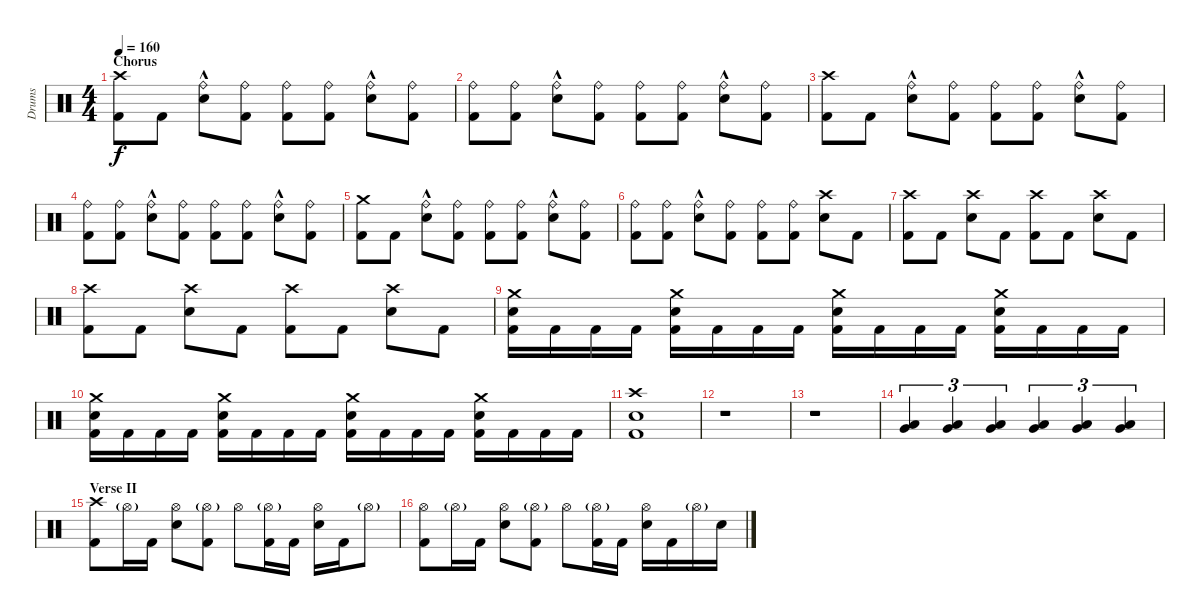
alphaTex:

\track ("Drums" "Drums") {instrument percussion}
\staff {score}
\articulation defaults
\ts (4 4)
\section ("" "Chorus")
\tempo 160
\clef neutral
\ks c
("Crash high (hit)" "Kick (hit) 2").8{dy f} "Kick (hit) 2".8 ("Ride (bell)"{hac} "Snare (hit) 2").8 ("Ride (bell)" "Kick (hit) 2").8 ("Ride (bell)" "Kick (hit) 2").8 ("Ride (bell)" "Kick (hit) 2").8 ("Ride (bell)"{hac} "Snare (hit) 2").8 ("Ride (bell)" "Kick (hit) 2").8 |
("Ride (bell)" "Kick (hit) 2").8 ("Ride (bell)" "Kick (hit) 2").8 ("Ride (bell)"{hac} "Snare (hit) 2").8 ("Ride (bell)" "Kick (hit) 2").8 ("Ride (bell)" "Kick (hit) 2").8 ("Ride (bell)" "Kick (hit) 2").8 ("Ride (bell)"{hac} "Snare (hit) 2").8 ("Ride (bell)" "Kick (hit) 2").8 |
("Crash high (hit)" "Kick (hit) 2").8 "Kick (hit) 2".8 ("Ride (bell)"{hac} "Snare (hit) 2").8 ("Ride (bell)" "Kick (hit) 2").8 ("Ride (bell)" "Kick (hit) 2").8 ("Ride (bell)" "Kick (hit) 2").8 ("Ride (bell)"{hac} "Snare (hit) 2").8 ("Ride (bell)" "Kick (hit) 2").8 |
("Ride (bell)" "Kick (hit) 2").8 ("Ride (bell)" "Kick (hit) 2").8 ("Ride (bell)"{hac} "Snare (hit) 2").8 ("Ride (bell)" "Kick (hit) 2").8 ("Ride (bell)" "Kick (hit) 2").8 ("Ride (bell)" "Kick (hit) 2").8 ("Ride (bell)"{hac} "Snare (hit) 2").8 ("Ride (bell)" "Kick (hit) 2").8 |
("Crash medium (hit)" "Kick (hit) 2").8 "Kick (hit) 2".8 ("Ride (bell)"{hac} "Snare (hit) 2").8 ("Ride (bell)" "Kick (hit) 2").8 ("Ride (bell)" "Kick (hit) 2").8 ("Ride (bell)" "Kick (hit) 2").8 ("Ride (bell)"{hac} "Snare (hit) 2").8 ("Ride (bell)" "Kick (hit) 2").8 |
("Ride (bell)" "Kick (hit) 2").8 ("Ride (bell)" "Kick (hit) 2").8 ("Ride (bell)"{hac} "Snare (hit) 2").8 ("Ride (bell)" "Kick (hit) 2").8 ("Ride (bell)" "Kick (hit) 2").8 ("Ride (bell)" "Kick (hit) 2").8 ("Crash high (hit)" "Snare (hit) 2").8 "Kick (hit) 2".8 |
("Crash high (hit)" "Kick (hit) 2").8 "Kick (hit) 2".8 ("Crash high (hit)" "Snare (hit) 2").8 "Kick (hit) 2".8 ("Crash high (hit)" "Kick (hit) 2").8 "Kick (hit) 2".8 ("Crash high (hit)" "Snare (hit) 2").8 "Kick (hit) 2".8 |
("Crash high (hit)" "Kick (hit) 2").8 "Kick (hit) 2".8 ("Crash high (hit)" "Snare (hit) 2").8 "Kick (hit) 2".8 ("Crash high (hit)" "Kick (hit) 2").8 "Kick (hit) 2".8 ("Crash high (hit)" "Snare (hit) 2").8 "Kick (hit) 2".8 |
("Crash medium (hit)" "Snare (hit) 2" "Kick (hit) 2").16 "Kick (hit) 2".16 "Kick (hit) 2".16 "Kick (hit) 2".16 ("Crash medium (hit)" "Snare (hit) 2" "Kick (hit) 2").16 "Kick (hit) 2".16 "Kick (hit) 2".16 "Kick (hit) 2".16 ("Crash medium (hit)" "Snare (hit) 2" "Kick (hit) 2").16 "Kick (hit) 2".16 "Kick (hit) 2".16 "Kick (hit) 2".16 ("Crash medium (hit)" "Snare (hit) 2" "Kick (hit) 2").16 "Kick (hit) 2".16 "Kick (hit) 2".16 "Kick (hit) 2".16 |
("Crash medium (hit)" "Snare (hit) 2" "Kick (hit) 2").16 "Kick (hit) 2".16 "Kick (hit) 2".16 "Kick (hit) 2".16 ("Crash medium (hit)" "Snare (hit) 2" "Kick (hit) 2").16 "Kick (hit) 2".16 "Kick (hit) 2".16 "Kick (hit) 2".16 ("Crash medium (hit)" "Snare (hit) 2" "Kick (hit) 2").16 "Kick (hit) 2".16 "Kick (hit) 2".16 "Kick (hit) 2".16 ("Crash medium (hit)" "Snare (hit) 2" "Kick (hit) 2").16 "Kick (hit) 2".16 "Kick (hit) 2".16 "Kick (hit) 2".16 |
("Crash high (hit)" "Snare (hit) 2" "Kick (hit) 2").1 |
r.1 |
r.1 |
("Very Low Tom (hit)" "Low Tom (hit)").4{tu (3 2)} ("Very Low Tom (hit)" "Low Tom (hit)").4{tu (3 2)} ("Very Low Tom (hit)" "Low Tom (hit)").4{tu (3 2)} ("Very Low Tom (hit)" "Low Tom (hit)").4{tu (3 2)} ("Very Low Tom (hit)" "Low Tom (hit)").4{tu (3 2)} ("Very Low Tom (hit)" "Low Tom (hit)").4{tu (3 2)} |
\section ("" "Verse II")
("Crash high (hit)" "Kick (hit) 2").8 "Hi-Hat (open)"{g}.16 "Kick (hit) 2".16 ("Hi-Hat (open)" "Snare (hit) 2").8 ("Hi-Hat (open)"{g} "Kick (hit) 2").8 "Hi-Hat (open)".8 ("Hi-Hat (open)"{g} "Kick (hit) 2").16 "Kick (hit) 2".16 ("Hi-Hat (open)" "Snare (hit) 2").16 "Kick (hit) 2".16 "Hi-Hat (open)"{g}.8 |
("Hi-Hat (open)" "Kick (hit) 2").8 "Hi-Hat (open)"{g}.16 "Kick (hit) 2".16 ("Hi-Hat (open)" "Snare (hit) 2").8 ("Hi-Hat (open)"{g} "Kick (hit) 2").8 "Hi-Hat (open)".8 ("Hi-Hat (open)"{g} "Kick (hit) 2").16 "Kick (hit) 2".16 ("Hi-Hat (open)" "Snare (hit) 2").16 "Kick (hit) 2".16 "Hi-Hat (open)"{g}.16 "Snare (hit) 2".16
